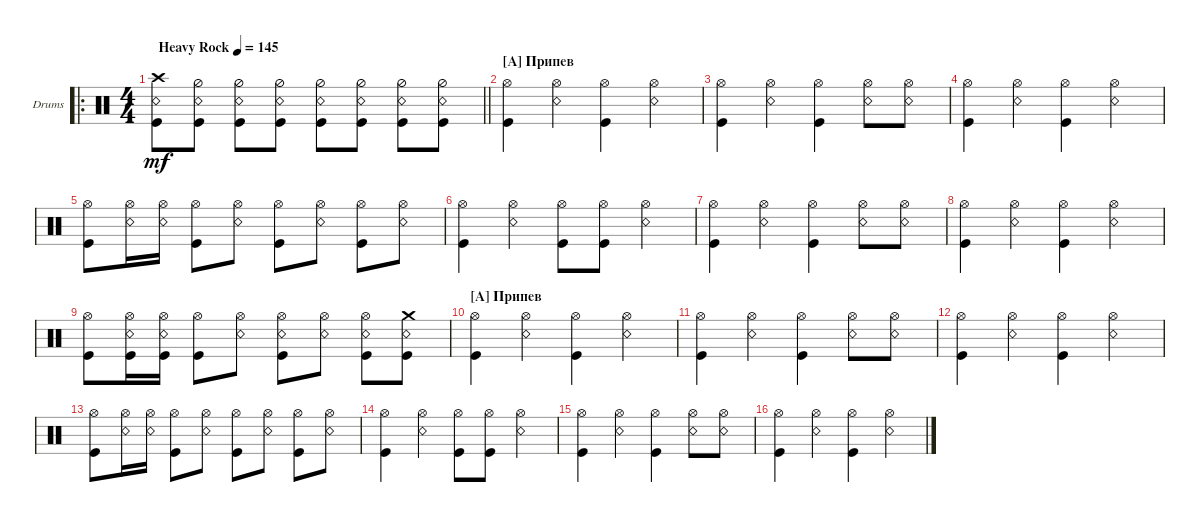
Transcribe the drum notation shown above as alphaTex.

\defaultSystemsLayout 4
\bracketExtendMode groupsimilarinstruments
\firstSystemTrackNameOrientation horizontal
\otherSystemsTrackNameOrientation horizontal
\track ("Drumkit" "Drums") {instrument percussion}
\staff {score}
\articulation defaults
\ro
\ts (4 4)
\tempo (145 "Heavy Rock")
\clef neutral
\barLineRight lightlight
\ks c
("Kick (hit)" "Snare (rim shot)" "Crash high (hit)").8{dy mf} ("Snare (rim shot)" "Kick (hit)" "Hi-Hat (half)").8 ("Snare (rim shot)" "Kick (hit)" "Hi-Hat (half)").8 ("Snare (rim shot)" "Kick (hit)" "Hi-Hat (half)").8 ("Snare (rim shot)" "Kick (hit)" "Hi-Hat (half)").8 ("Snare (rim shot)" "Kick (hit)" "Hi-Hat (half)").8 ("Snare (rim shot)" "Kick (hit)" "Hi-Hat (half)").8 ("Snare (rim shot)" "Kick (hit)" "Hi-Hat (half)").8 |
\section ("A" "Припев")
("Kick (hit)" "Hi-Hat (open)").4 ("Snare (rim shot)" "Hi-Hat (open)").4 ("Kick (hit)" "Hi-Hat (open)").4 ("Snare (rim shot)" "Hi-Hat (open)").4 |
("Kick (hit)" "Hi-Hat (open)").4 ("Snare (rim shot)" "Hi-Hat (open)").4 ("Kick (hit)" "Hi-Hat (open)").4 ("Snare (rim shot)" "Hi-Hat (open)").8 ("Snare (rim shot)" "Hi-Hat (open)").8 |
("Kick (hit)" "Hi-Hat (open)").4 ("Snare (rim shot)" "Hi-Hat (open)").4 ("Kick (hit)" "Hi-Hat (open)").4 ("Snare (rim shot)" "Hi-Hat (open)").4 |
("Kick (hit)" "Hi-Hat (open)").8 ("Snare (rim shot)" "Hi-Hat (open)").16 ("Snare (rim shot)" "Hi-Hat (open)").16 ("Kick (hit)" "Hi-Hat (open)").8 ("Snare (rim shot)" "Hi-Hat (open)").8 ("Kick (hit)" "Hi-Hat (open)").8 ("Snare (rim shot)" "Hi-Hat (open)").8 ("Kick (hit)" "Hi-Hat (open)").8 ("Snare (rim shot)" "Hi-Hat (open)").8 |
("Kick (hit)" "Hi-Hat (open)").4 ("Snare (rim shot)" "Hi-Hat (open)").4 ("Kick (hit)" "Hi-Hat (open)").8 ("Kick (hit)" "Hi-Hat (open)").8 ("Snare (rim shot)" "Hi-Hat (open)").4 |
("Kick (hit)" "Hi-Hat (open)").4 ("Snare (rim shot)" "Hi-Hat (open)").4 ("Kick (hit)" "Hi-Hat (open)").4 ("Snare (rim shot)" "Hi-Hat (open)").8 ("Snare (rim shot)" "Hi-Hat (open)").8 |
("Kick (hit)" "Hi-Hat (open)").4 ("Snare (rim shot)" "Hi-Hat (open)").4 ("Kick (hit)" "Hi-Hat (open)").4 ("Snare (rim shot)" "Hi-Hat (open)").4 |
("Kick (hit)" "Hi-Hat (open)").8 ("Snare (rim shot)" "Hi-Hat (open)" "Kick (hit)").16 ("Snare (rim shot)" "Hi-Hat (open)" "Kick (hit)").16 ("Kick (hit)" "Hi-Hat (open)").8 ("Snare (rim shot)" "Hi-Hat (open)").8 ("Kick (hit)" "Snare (rim shot)" "Hi-Hat (open)").8 ("Snare (rim shot)" "Hi-Hat (open)").8 ("Kick (hit)" "Snare (rim shot)" "Hi-Hat (open)").8 ("Snare (rim shot)" "Crash medium (hit)" "Kick (hit)").8 |
\section ("A" "Припев")
("Kick (hit)" "Hi-Hat (open)").4 ("Snare (rim shot)" "Hi-Hat (open)").4 ("Kick (hit)" "Hi-Hat (open)").4 ("Snare (rim shot)" "Hi-Hat (open)").4 |
("Kick (hit)" "Hi-Hat (open)").4 ("Snare (rim shot)" "Hi-Hat (open)").4 ("Kick (hit)" "Hi-Hat (open)").4 ("Snare (rim shot)" "Hi-Hat (open)").8 ("Snare (rim shot)" "Hi-Hat (open)").8 |
("Kick (hit)" "Hi-Hat (open)").4 ("Snare (rim shot)" "Hi-Hat (open)").4 ("Kick (hit)" "Hi-Hat (open)").4 ("Snare (rim shot)" "Hi-Hat (open)").4 |
("Kick (hit)" "Hi-Hat (open)").8 ("Snare (rim shot)" "Hi-Hat (open)").16 ("Snare (rim shot)" "Hi-Hat (open)").16 ("Kick (hit)" "Hi-Hat (open)").8 ("Snare (rim shot)" "Hi-Hat (open)").8 ("Kick (hit)" "Hi-Hat (open)").8 ("Snare (rim shot)" "Hi-Hat (open)").8 ("Kick (hit)" "Hi-Hat (open)").8 ("Snare (rim shot)" "Hi-Hat (open)").8 |
("Kick (hit)" "Hi-Hat (open)").4 ("Snare (rim shot)" "Hi-Hat (open)").4 ("Kick (hit)" "Hi-Hat (open)").8 ("Kick (hit)" "Hi-Hat (open)").8 ("Snare (rim shot)" "Hi-Hat (open)").4 |
("Kick (hit)" "Hi-Hat (open)").4 ("Snare (rim shot)" "Hi-Hat (open)").4 ("Kick (hit)" "Hi-Hat (open)").4 ("Snare (rim shot)" "Hi-Hat (open)").8 ("Snare (rim shot)" "Hi-Hat (open)").8 |
("Kick (hit)" "Hi-Hat (open)").4 ("Snare (rim shot)" "Hi-Hat (open)").4 ("Kick (hit)" "Hi-Hat (open)").4 ("Snare (rim shot)" "Hi-Hat (open)").4
